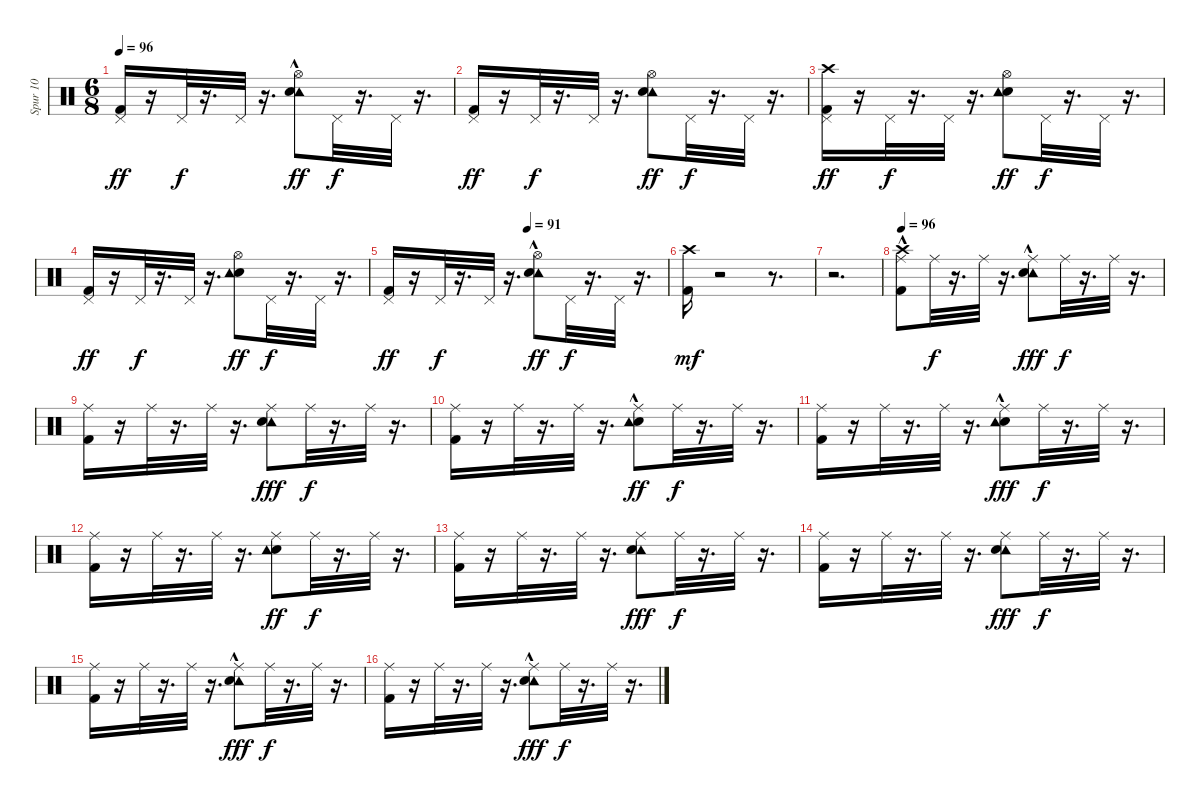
\track ("Spur 10" "Spur 10") {instrument percussion}
\staff {score}
\articulation defaults
\ts (6 8)
\tempo 96
\clef neutral
\ks c
("Pedal Hi-Hat (hit)" "Kick (hit) 2").16{dy ff} r.16 "Pedal Hi-Hat (hit)".32{dy f} r.16{d} "Pedal Hi-Hat (hit)".32 r.16{d} ("Tambourine (hit)"{hac} "Electric Snare (hit)" "Hi-Hat (open)").8{dy ff} "Pedal Hi-Hat (hit)".32{dy f} r.16{d} "Pedal Hi-Hat (hit)".32 r.16{d} |
("Pedal Hi-Hat (hit)" "Kick (hit) 2").16{dy ff} r.16 "Pedal Hi-Hat (hit)".32{dy f} r.16{d} "Pedal Hi-Hat (hit)".32 r.16{d} ("Tambourine (hit)" "Electric Snare (hit)" "Hi-Hat (open)").8{dy ff} "Pedal Hi-Hat (hit)".32{dy f} r.16{d} "Pedal Hi-Hat (hit)".32 r.16{d} |
("Pedal Hi-Hat (hit)" "Kick (hit) 2" "Crash high (hit)").16{dy ff} r.16 "Pedal Hi-Hat (hit)".32{dy f} r.16{d} "Pedal Hi-Hat (hit)".32 r.16{d} ("Electric Snare (hit)" "Hi-Hat (open)" "Tambourine (hit)").8{dy ff} "Pedal Hi-Hat (hit)".32{dy f} r.16{d} "Pedal Hi-Hat (hit)".32 r.16{d} |
("Pedal Hi-Hat (hit)" "Kick (hit) 2").16{dy ff} r.16 "Pedal Hi-Hat (hit)".32{dy f} r.16{d} "Pedal Hi-Hat (hit)".32 r.16{d} ("Electric Snare (hit)" "Hi-Hat (open)" "Tambourine (hit)").8{dy ff} "Pedal Hi-Hat (hit)".32{dy f} r.16{d} "Pedal Hi-Hat (hit)".32 r.16{d} |
\tempo (91 0.5)
("Pedal Hi-Hat (hit)" "Kick (hit) 2").16{dy ff} r.16 "Pedal Hi-Hat (hit)".32{dy f} r.16{d} "Pedal Hi-Hat (hit)".32 r.16{d} ("Tambourine (hit)"{hac} "Electric Snare (hit)" "Hi-Hat (open)").8{dy ff} "Pedal Hi-Hat (hit)".32{dy f} r.16{d} "Pedal Hi-Hat (hit)".32 r.16{d} |
("Crash high (hit)" "Kick (hit) 2").16{dy mf} r.2 r.8{d} |
r.2{d} |
\tempo 96
("Crash high (hit)"{hac} "Ride (middle)" "Kick (hit) 2").8 "Ride (middle)".32{dy f} r.16{d} "Ride (middle)".32 r.16{d} ("Tambourine (hit)"{hac} "Electric Snare (hit)" "Ride (middle)").8{dy fff} "Ride (middle)".32{dy f} r.16{d} "Ride (middle)".32 r.16{d} |
("Ride (middle)" "Kick (hit) 2").16 r.16 "Ride (middle)".32 r.16{d} "Ride (middle)".32 r.16{d} ("Tambourine (hit)" "Electric Snare (hit)" "Ride (middle)").8{dy fff} "Ride (middle)".32{dy f} r.16{d} "Ride (middle)".32 r.16{d} |
("Ride (middle)" "Kick (hit) 2").16 r.16 "Ride (middle)".32 r.16{d} "Ride (middle)".32 r.16{d} ("Electric Snare (hit)" "Ride (middle)" "Tambourine (hit)"{hac}).8{dy ff} "Ride (middle)".32{dy f} r.16{d} "Ride (middle)".32 r.16{d} |
("Ride (middle)" "Kick (hit) 2").16 r.16 "Ride (middle)".32 r.16{d} "Ride (middle)".32 r.16{d} ("Electric Snare (hit)" "Ride (middle)" "Tambourine (hit)"{hac}).8{dy fff} "Ride (middle)".32{dy f} r.16{d} "Ride (middle)".32 r.16{d} |
("Ride (middle)" "Kick (hit) 2").16 r.16 "Ride (middle)".32 r.16{d} "Ride (middle)".32 r.16{d} ("Electric Snare (hit)" "Ride (middle)" "Tambourine (hit)").8{dy ff} "Ride (middle)".32{dy f} r.16{d} "Ride (middle)".32 r.16{d} |
("Ride (middle)" "Kick (hit) 2").16 r.16 "Ride (middle)".32 r.16{d} "Ride (middle)".32 r.16{d} ("Tambourine (hit)" "Electric Snare (hit)" "Ride (middle)").8{dy fff} "Ride (middle)".32{dy f} r.16{d} "Ride (middle)".32 r.16{d} |
("Ride (middle)" "Kick (hit) 2").16 r.16 "Ride (middle)".32 r.16{d} "Ride (middle)".32 r.16{d} ("Tambourine (hit)" "Electric Snare (hit)" "Ride (middle)").8{dy fff} "Ride (middle)".32{dy f} r.16{d} "Ride (middle)".32 r.16{d} |
("Ride (middle)" "Kick (hit) 2").16 r.16 "Ride (middle)".32 r.16{d} "Ride (middle)".32 r.16{d} ("Tambourine (hit)"{hac} "Electric Snare (hit)" "Ride (middle)").8{dy fff} "Ride (middle)".32{dy f} r.16{d} "Ride (middle)".32 r.16{d} |
("Ride (middle)" "Kick (hit) 2").16 r.16 "Ride (middle)".32 r.16{d} "Ride (middle)".32 r.16{d} ("Tambourine (hit)"{hac} "Electric Snare (hit)" "Ride (middle)").8{dy fff} "Ride (middle)".32{dy f} r.16{d} "Ride (middle)".32 r.16{d}
